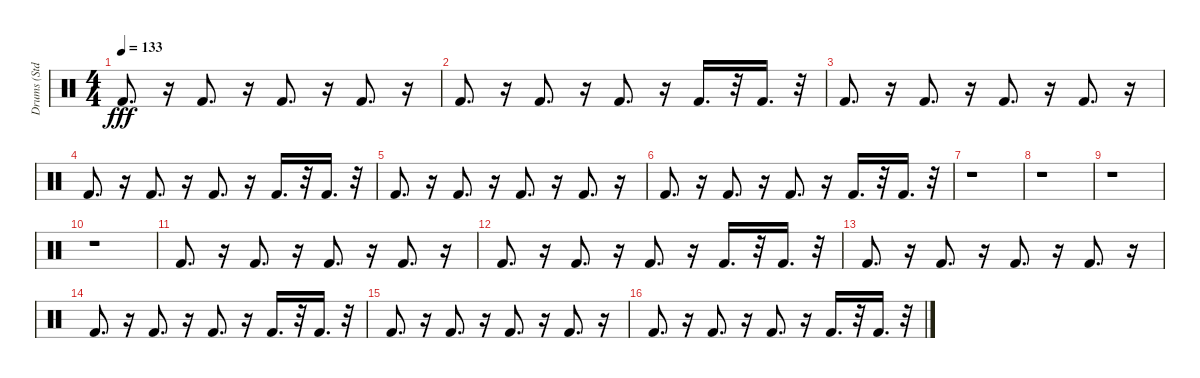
\track ("Drums (Std.)" "Drums (Std") {instrument percussion}
\staff {score}
\articulation defaults
\ts (4 4)
\tempo 133
\clef neutral
\ks c "Kick (hit) 2".8{d dy fff}
r.16 "Kick (hit) 2".8{d} r.16 "Kick (hit) 2".8{d} r.16 "Kick (hit) 2".8{d} r.16 |
"Kick (hit) 2".8{d} r.16 "Kick (hit) 2".8{d} r.16 "Kick (hit) 2".8{d} r.16 "Kick (hit) 2".16{d} r.32 "Kick (hit) 2".16{d} r.32 |
"Kick (hit) 2".8{d} r.16 "Kick (hit) 2".8{d} r.16 "Kick (hit) 2".8{d} r.16 "Kick (hit) 2".8{d} r.16 |
"Kick (hit) 2".8{d} r.16 "Kick (hit) 2".8{d} r.16 "Kick (hit) 2".8{d} r.16 "Kick (hit) 2".16{d} r.32 "Kick (hit) 2".16{d} r.32 |
"Kick (hit) 2".8{d} r.16 "Kick (hit) 2".8{d} r.16 "Kick (hit) 2".8{d} r.16 "Kick (hit) 2".8{d} r.16 |
"Kick (hit) 2".8{d} r.16 "Kick (hit) 2".8{d} r.16 "Kick (hit) 2".8{d} r.16 "Kick (hit) 2".16{d} r.32 "Kick (hit) 2".16{d} r.32 |
r.1 |
r.1 |
r.1 |
r.1 |
"Kick (hit) 2".8{d} r.16 "Kick (hit) 2".8{d} r.16 "Kick (hit) 2".8{d} r.16 "Kick (hit) 2".8{d} r.16 |
"Kick (hit) 2".8{d} r.16 "Kick (hit) 2".8{d} r.16 "Kick (hit) 2".8{d} r.16 "Kick (hit) 2".16{d} r.32 "Kick (hit) 2".16{d} r.32 |
"Kick (hit) 2".8{d} r.16 "Kick (hit) 2".8{d} r.16 "Kick (hit) 2".8{d} r.16 "Kick (hit) 2".8{d} r.16 |
"Kick (hit) 2".8{d} r.16 "Kick (hit) 2".8{d} r.16 "Kick (hit) 2".8{d} r.16 "Kick (hit) 2".16{d} r.32 "Kick (hit) 2".16{d} r.32 |
"Kick (hit) 2".8{d} r.16 "Kick (hit) 2".8{d} r.16 "Kick (hit) 2".8{d} r.16 "Kick (hit) 2".8{d} r.16 |
"Kick (hit) 2".8{d} r.16 "Kick (hit) 2".8{d} r.16 "Kick (hit) 2".8{d} r.16 "Kick (hit) 2".16{d} r.32 "Kick (hit) 2".16{d} r.32
